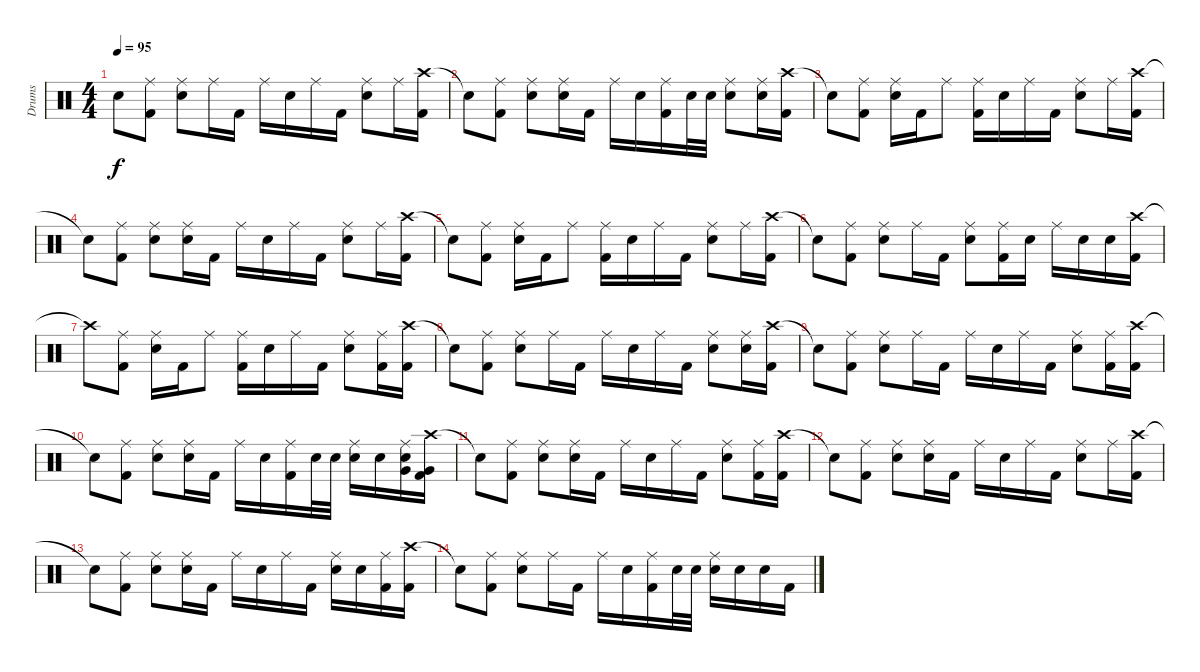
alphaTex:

\track ("Drums" "Drums") {instrument percussion}
\staff {score}
\articulation defaults
\ts (4 4)
\tempo 95
\clef neutral
\ks c "Snare (hit)"{t}.8{dy f}
("Ride (middle)" "Kick (hit) 2").8 ("Ride (middle)" "Snare (hit) 2").8 "Ride (middle)".16 "Kick (hit) 2".16 "Ride (middle)".16 "Snare (hit) 2".16 "Ride (middle)".16 "Kick (hit) 2".16 ("Ride (middle)" "Snare (hit) 2").8 "Ride (middle)".16 ("Crash high (hit)" "Kick (hit) 2").16 |
"Snare (hit)"{t}.8 ("Ride (middle)" "Kick (hit) 2").8 ("Ride (middle)" "Snare (hit) 2").8 ("Ride (middle)" "Snare (hit) 2").16 "Kick (hit) 2".16 "Ride (middle)".16 "Snare (hit) 2".16 ("Ride (middle)" "Kick (hit) 2").16 "Snare (hit) 2".32 "Snare (hit) 2".32 ("Ride (middle)" "Snare (hit) 2").8 ("Ride (middle)" "Snare (hit) 2").16 ("Crash high (hit)" "Kick (hit) 2").16 |
"Snare (hit)"{t}.8 ("Ride (middle)" "Kick (hit) 2").8 ("Ride (middle)" "Snare (hit) 2").16 "Kick (hit) 2".16 "Ride (middle)".8 ("Ride (middle)" "Kick (hit) 2").16 "Snare (hit) 2".16 "Ride (middle)".16 "Kick (hit) 2".16 ("Ride (middle)" "Snare (hit) 2").8 "Ride (middle)".16 ("Crash high (hit)" "Kick (hit) 2").16 |
"Snare (hit)"{t}.8 ("Ride (middle)" "Kick (hit) 2").8 ("Ride (middle)" "Snare (hit) 2").8 ("Ride (middle)" "Snare (hit) 2").16 "Kick (hit) 2".16 "Ride (middle)".16 "Snare (hit) 2".16 "Ride (middle)".16 "Kick (hit) 2".16 ("Ride (middle)" "Snare (hit) 2").8 "Ride (middle)".16 ("Crash high (hit)" "Kick (hit) 2").16 |
"Snare (hit)"{t}.8 ("Ride (middle)" "Kick (hit) 2").8 ("Ride (middle)" "Snare (hit) 2").16 "Kick (hit) 2".16 "Ride (middle)".8 ("Ride (middle)" "Kick (hit) 2").16 "Snare (hit) 2".16 "Ride (middle)".16 "Kick (hit) 2".16 ("Ride (middle)" "Snare (hit) 2").8 "Ride (middle)".16 ("Crash high (hit)" "Kick (hit) 2").16 |
"Snare (hit)"{t}.8 ("Ride (middle)" "Kick (hit) 2").8 ("Ride (middle)" "Snare (hit) 2").8 "Ride (middle)".16 "Kick (hit) 2".16 ("Ride (middle)" "Snare (hit) 2").8 ("Ride (middle)" "Kick (hit) 2").16 "Snare (hit) 2".16 "Ride (middle)".16 "Snare (hit) 2".16 "Snare (hit) 2".16 ("Crash high (hit)" "Kick (hit) 2").16 |
"Crash high (hit)"{t}.8 ("Ride (middle)" "Kick (hit) 2").8 ("Ride (middle)" "Snare (hit) 2").16 "Kick (hit) 2".16 "Ride (middle)".8 ("Ride (middle)" "Kick (hit) 2").16 "Snare (hit) 2".16 "Ride (middle)".16 "Kick (hit) 2".16 ("Ride (middle)" "Snare (hit) 2").8 ("Ride (middle)" "Kick (hit) 2").16 ("Crash high (hit)" "Kick (hit) 2").16 |
"Snare (hit)"{t}.8 ("Ride (middle)" "Kick (hit) 2").8 ("Ride (middle)" "Snare (hit) 2").8 "Ride (middle)".16 "Kick (hit) 2".16 "Ride (middle)".16 "Snare (hit) 2".16 "Ride (middle)".16 "Kick (hit) 2".16 ("Ride (middle)" "Snare (hit) 2").8 ("Ride (middle)" "Snare (hit) 2").16 ("Crash high (hit)" "Kick (hit) 2").16 |
"Snare (hit)"{t}.8 ("Ride (middle)" "Kick (hit) 2").8 ("Ride (middle)" "Snare (hit) 2").8 "Ride (middle)".16 "Kick (hit) 2".16 "Ride (middle)".16 "Snare (hit) 2".16 "Ride (middle)".16 "Kick (hit) 2".16 ("Ride (middle)" "Snare (hit) 2").8 ("Ride (middle)" "Kick (hit) 2").16 ("Crash high (hit)" "Kick (hit) 2").16 |
"Snare (hit)"{t}.8 ("Ride (middle)" "Kick (hit) 2").8 ("Ride (middle)" "Snare (hit) 2").8 ("Ride (middle)" "Snare (hit) 2").16 "Kick (hit) 2".16 "Ride (middle)".16 "Snare (hit) 2".16 ("Ride (middle)" "Kick (hit) 2").16 "Snare (hit) 2".32 "Snare (hit) 2".32 ("Ride (middle)" "Snare (hit) 2").16 "Snare (hit) 2".16 ("Ride (middle)" "Snare (hit) 2" "Very Low Tom (hit)").16 ("Crash high (hit)" "Very Low Tom (hit)" "Kick (hit) 2").16 |
"Snare (hit)"{t}.8 ("Ride (middle)" "Kick (hit) 2").8 ("Ride (middle)" "Snare (hit) 2").8 ("Ride (middle)" "Snare (hit) 2").16 "Kick (hit) 2".16 "Ride (middle)".16 "Snare (hit) 2".16 "Ride (middle)".16 "Kick (hit) 2".16 ("Ride (middle)" "Snare (hit) 2").8 ("Ride (middle)" "Kick (hit) 2").16 ("Crash high (hit)" "Kick (hit) 2").16 |
"Snare (hit)"{t}.8 ("Ride (middle)" "Kick (hit) 2").8 ("Ride (middle)" "Snare (hit) 2").8 ("Ride (middle)" "Snare (hit) 2").16 "Kick (hit) 2".16 "Ride (middle)".16 "Snare (hit) 2".16 "Ride (middle)".16 "Kick (hit) 2".16 ("Ride (middle)" "Snare (hit) 2").8 "Ride (middle)".16 ("Crash high (hit)" "Kick (hit) 2").16 |
"Snare (hit)"{t}.8 ("Ride (middle)" "Kick (hit) 2").8 ("Ride (middle)" "Snare (hit) 2").8 ("Ride (middle)" "Snare (hit) 2").16 "Kick (hit) 2".16 "Ride (middle)".16 "Snare (hit) 2".16 "Ride (middle)".16 "Kick (hit) 2".16 ("Ride (middle)" "Snare (hit) 2").16 "Snare (hit) 2".16 ("Ride (middle)" "Kick (hit) 2").16 ("Crash high (hit)" "Kick (hit) 2").16 |
"Snare (hit)"{t}.8 ("Ride (middle)" "Kick (hit) 2").8 ("Ride (middle)" "Snare (hit) 2").8 "Ride (middle)".16 "Kick (hit) 2".16 "Ride (middle)".16 "Snare (hit) 2".16 ("Ride (middle)" "Kick (hit) 2").16 "Snare (hit) 2".32 "Snare (hit) 2".32 ("Ride (middle)" "Snare (hit) 2").16 "Snare (hit) 2".16 "Snare (hit) 2".16 "Kick (hit) 2".16
